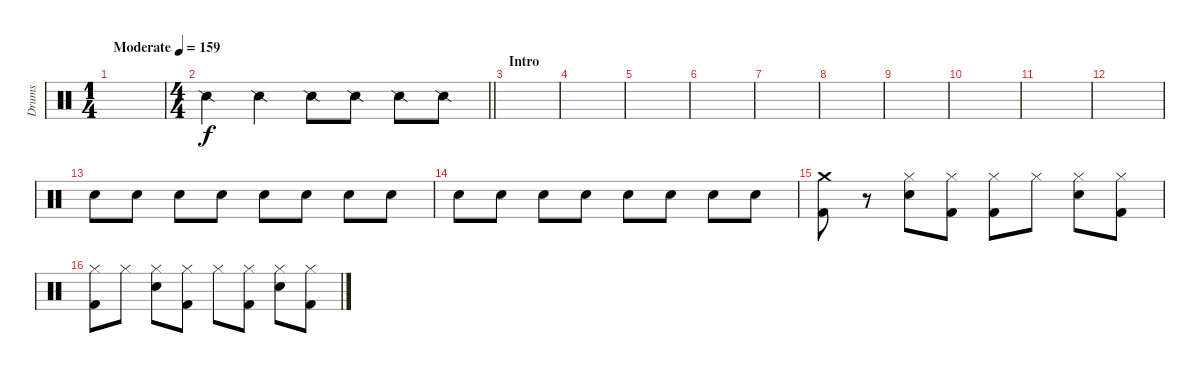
\track ("Drums" "Drums") {instrument percussion}
\staff {score}
\articulation defaults
\ts (1 4)
\tempo (159 "Moderate")
\clef neutral
\ks c
|
\ts (4 4)
\barLineRight lightlight "Snare (side stick) 2".4 "Snare (side stick) 2".4 "Snare (side stick) 2".8 "Snare (side stick) 2".8 "Snare (side stick) 2".8 "Snare (side stick) 2".8
|
\section ("" "Intro")
|
|
|
|
|
|
|
|
|
|
"Snare (hit) 2".8{volume 16} "Snare (hit) 2".8 "Snare (hit) 2".8 "Snare (hit) 2".8 "Snare (hit) 2".8 "Snare (hit) 2".8 "Snare (hit) 2".8 "Snare (hit) 2".8 |
"Snare (hit) 2".8 "Snare (hit) 2".8 "Snare (hit) 2".8 "Snare (hit) 2".8 "Snare (hit) 2".8 "Snare (hit) 2".8 "Snare (hit) 2".8 "Snare (hit) 2".8 |
("Crash medium (hit)" "Kick (hit) 2").8 r.8 ("Hi-Hat (closed)" "Snare (hit) 2").8 ("Hi-Hat (closed)" "Kick (hit) 2").8 ("Hi-Hat (closed)" "Kick (hit) 2").8 "Hi-Hat (closed)".8 ("Hi-Hat (closed)" "Snare (hit) 2").8 ("Hi-Hat (closed)" "Kick (hit) 2").8 |
("Hi-Hat (closed)" "Kick (hit) 2").8 "Hi-Hat (closed)".8 ("Hi-Hat (closed)" "Snare (hit) 2").8 ("Hi-Hat (closed)" "Kick (hit) 2").8 "Hi-Hat (closed)".8 ("Hi-Hat (closed)" "Kick (hit) 2").8 ("Hi-Hat (closed)" "Snare (hit) 2").8 ("Hi-Hat (closed)" "Kick (hit) 2").8
